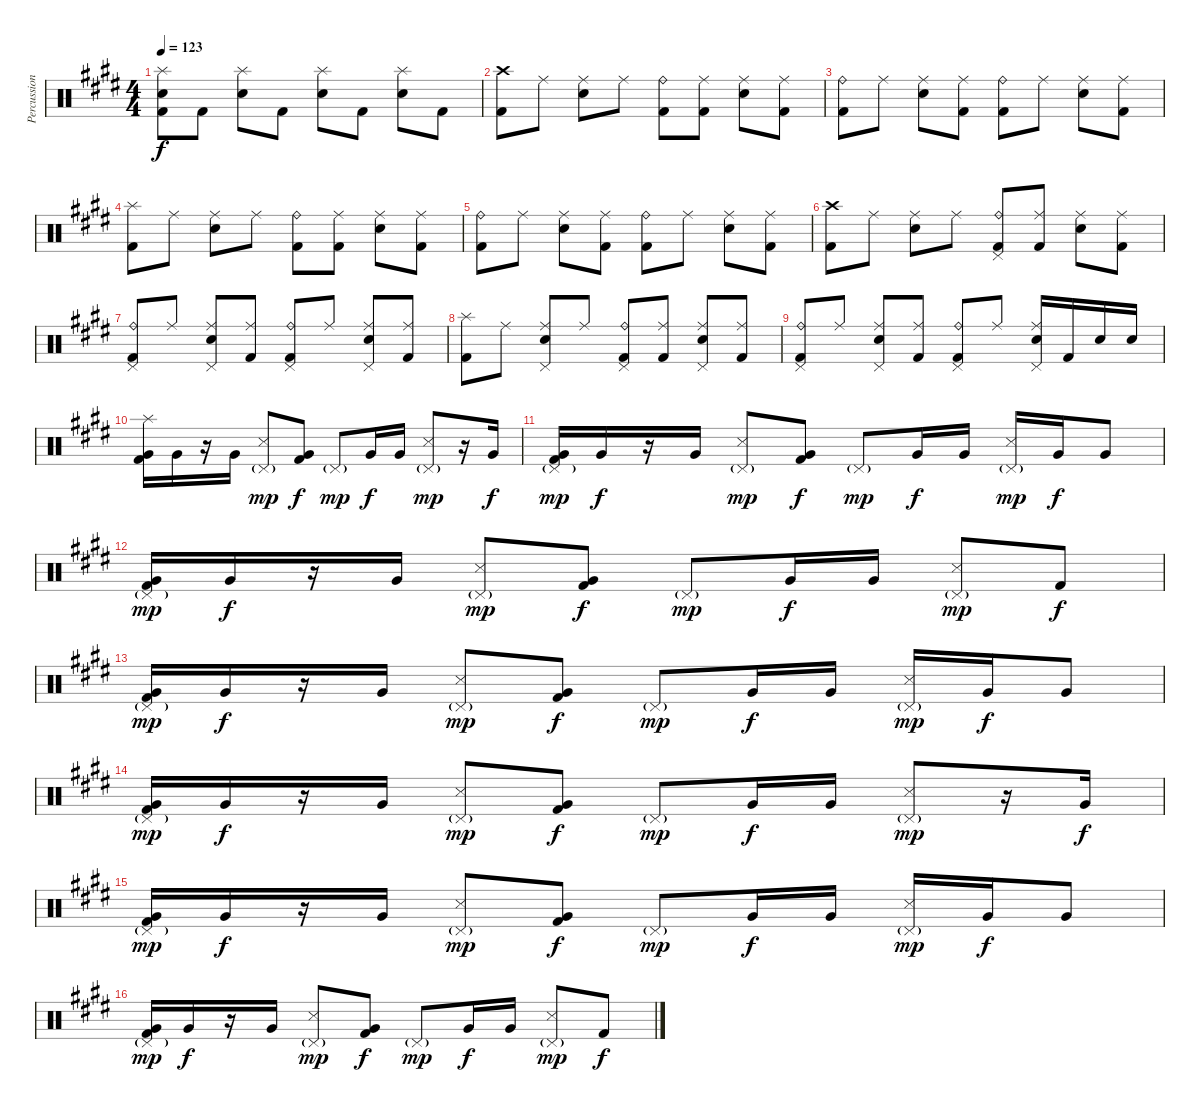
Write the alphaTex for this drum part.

\track ("Percussioni" "Percussion") {instrument percussion}
\staff {score}
\articulation defaults
\ts (4 4)
\tempo 123
\clef neutral
\ks e
("Splash (hit)" "Electric Snare (hit)" "Kick (hit) 2").8{dy f} "Kick (hit) 2".8 ("Splash (hit)" "Electric Snare (hit)").8 "Kick (hit) 2".8 ("Splash (hit)" "Electric Snare (hit)").8 "Kick (hit) 2".8 ("Splash (hit)" "Electric Snare (hit)").8 "Kick (hit) 2".8 |
("Crash high (hit)" "Kick (hit) 2").8 "Ride (middle)".8 ("Ride (middle)" "Electric Snare (hit)").8 "Ride (middle)".8 ("Ride (bell)" "Kick (hit) 2").8 ("Ride (middle)" "Kick (hit) 2").8 ("Ride (middle)" "Electric Snare (hit)").8 ("Ride (middle)" "Kick (hit) 2").8 |
("Ride (bell)" "Kick (hit) 2").8 "Ride (middle)".8 ("Ride (middle)" "Electric Snare (hit)").8 ("Ride (middle)" "Kick (hit) 2").8 ("Ride (bell)" "Kick (hit) 2").8 "Ride (middle)".8 ("Ride (middle)" "Electric Snare (hit)").8 ("Ride (middle)" "Kick (hit) 2").8 |
("Splash (hit)" "Kick (hit) 2").8 "Ride (middle)".8 ("Ride (middle)" "Electric Snare (hit)").8 "Ride (middle)".8 ("Ride (bell)" "Kick (hit) 2").8 ("Ride (middle)" "Kick (hit) 2").8 ("Ride (middle)" "Electric Snare (hit)").8 ("Ride (middle)" "Kick (hit) 2").8 |
("Ride (bell)" "Kick (hit) 2").8 "Ride (middle)".8 ("Ride (middle)" "Electric Snare (hit)").8 ("Ride (middle)" "Kick (hit) 2").8 ("Ride (bell)" "Kick (hit) 2").8 "Ride (middle)".8 ("Ride (middle)" "Electric Snare (hit)").8 ("Ride (middle)" "Kick (hit) 2").8 |
("Crash high (hit)" "Kick (hit) 2").8 "Ride (middle)".8 ("Ride (middle)" "Electric Snare (hit)").8 "Ride (middle)".8 ("Ride (bell)" "Pedal Hi-Hat (hit)" "Kick (hit) 2").8 ("Ride (middle)" "Kick (hit) 2").8 ("Ride (middle)" "Electric Snare (hit)").8 ("Ride (middle)" "Kick (hit) 2").8 |
("Ride (bell)" "Pedal Hi-Hat (hit)" "Kick (hit) 2").8 "Ride (middle)".8 ("Pedal Hi-Hat (hit)" "Ride (middle)" "Electric Snare (hit)").8 ("Ride (middle)" "Kick (hit) 2").8 ("Pedal Hi-Hat (hit)" "Ride (bell)" "Kick (hit) 2").8 "Ride (middle)".8 ("Pedal Hi-Hat (hit)" "Ride (middle)" "Electric Snare (hit)").8 ("Ride (middle)" "Kick (hit) 2").8 |
("Splash (hit)" "Kick (hit) 2").8 "Ride (middle)".8 ("Pedal Hi-Hat (hit)" "Ride (middle)" "Electric Snare (hit)").8 "Ride (middle)".8 ("Pedal Hi-Hat (hit)" "Ride (bell)" "Kick (hit) 2").8 ("Ride (middle)" "Kick (hit) 2").8 ("Pedal Hi-Hat (hit)" "Ride (middle)" "Electric Snare (hit)").8 ("Ride (middle)" "Kick (hit) 2").8 |
("Pedal Hi-Hat (hit)" "Ride (bell)" "Kick (hit) 2").8 "Ride (middle)".8 ("Pedal Hi-Hat (hit)" "Ride (middle)" "Electric Snare (hit)").8 ("Ride (middle)" "Kick (hit) 2").8 ("Pedal Hi-Hat (hit)" "Ride (bell)" "Kick (hit) 2").8 "Ride (middle)".8 ("Pedal Hi-Hat (hit)" "Ride (middle)" "Electric Snare (hit)").16 "Kick (hit) 2".16 "Electric Snare (hit)".16 "Electric Snare (hit)".16 |
("Splash (hit)" "Very Low Tom (hit)" "Kick (hit) 2").16 "Very Low Tom (hit)".16 r.16 "Very Low Tom (hit)".16 ("Pedal Hi-Hat (hit)"{g} "Metronome (hit)").8{dy mp} ("Very Low Tom (hit)" "Kick (hit) 2").8{dy f} "Pedal Hi-Hat (hit)"{g}.8{dy mp} "Very Low Tom (hit)".16{dy f} "Very Low Tom (hit)".16 ("Pedal Hi-Hat (hit)"{g} "Metronome (hit)").8{dy mp} r.16 "Very Low Tom (hit)".16{dy f} |
("Pedal Hi-Hat (hit)"{g} "Very Low Tom (hit)" "Kick (hit) 2").16{dy mp} "Very Low Tom (hit)".16{dy f} r.16 "Very Low Tom (hit)".16 ("Pedal Hi-Hat (hit)"{g} "Metronome (hit)").8{dy mp} ("Very Low Tom (hit)" "Kick (hit) 2").8{dy f} "Pedal Hi-Hat (hit)"{g}.8{dy mp} "Very Low Tom (hit)".16{dy f} "Very Low Tom (hit)".16 ("Pedal Hi-Hat (hit)"{g} "Metronome (hit)").16{dy mp} "Very Low Tom (hit)".16{dy f} "Very Low Tom (hit)".8 |
("Pedal Hi-Hat (hit)"{g} "Very Low Tom (hit)" "Kick (hit) 2").16{dy mp} "Very Low Tom (hit)".16{dy f} r.16 "Very Low Tom (hit)".16 ("Pedal Hi-Hat (hit)"{g} "Metronome (hit)").8{dy mp} ("Very Low Tom (hit)" "Kick (hit) 2").8{dy f} "Pedal Hi-Hat (hit)"{g}.8{dy mp} "Very Low Tom (hit)".16{dy f} "Very Low Tom (hit)".16 ("Pedal Hi-Hat (hit)"{g} "Metronome (hit)").8{dy mp} "Kick (hit) 2".8{dy f} |
("Pedal Hi-Hat (hit)"{g} "Very Low Tom (hit)" "Kick (hit) 2").16{dy mp} "Very Low Tom (hit)".16{dy f} r.16 "Very Low Tom (hit)".16 ("Pedal Hi-Hat (hit)"{g} "Metronome (hit)").8{dy mp} ("Very Low Tom (hit)" "Kick (hit) 2").8{dy f} "Pedal Hi-Hat (hit)"{g}.8{dy mp} "Very Low Tom (hit)".16{dy f} "Very Low Tom (hit)".16 ("Pedal Hi-Hat (hit)"{g} "Metronome (hit)").16{dy mp} "Very Low Tom (hit)".16{dy f} "Very Low Tom (hit)".8 |
("Pedal Hi-Hat (hit)"{g} "Very Low Tom (hit)" "Kick (hit) 2").16{dy mp} "Very Low Tom (hit)".16{dy f} r.16 "Very Low Tom (hit)".16 ("Pedal Hi-Hat (hit)"{g} "Metronome (hit)").8{dy mp} ("Very Low Tom (hit)" "Kick (hit) 2").8{dy f} "Pedal Hi-Hat (hit)"{g}.8{dy mp} "Very Low Tom (hit)".16{dy f} "Very Low Tom (hit)".16 ("Pedal Hi-Hat (hit)"{g} "Metronome (hit)").8{dy mp} r.16 "Very Low Tom (hit)".16{dy f} |
("Pedal Hi-Hat (hit)"{g} "Very Low Tom (hit)" "Kick (hit) 2").16{dy mp} "Very Low Tom (hit)".16{dy f} r.16 "Very Low Tom (hit)".16 ("Pedal Hi-Hat (hit)"{g} "Metronome (hit)").8{dy mp} ("Very Low Tom (hit)" "Kick (hit) 2").8{dy f} "Pedal Hi-Hat (hit)"{g}.8{dy mp} "Very Low Tom (hit)".16{dy f} "Very Low Tom (hit)".16 ("Pedal Hi-Hat (hit)"{g} "Metronome (hit)").16{dy mp} "Very Low Tom (hit)".16{dy f} "Very Low Tom (hit)".8 |
("Pedal Hi-Hat (hit)"{g} "Very Low Tom (hit)" "Kick (hit) 2").16{dy mp} "Very Low Tom (hit)".16{dy f} r.16 "Very Low Tom (hit)".16 ("Pedal Hi-Hat (hit)"{g} "Metronome (hit)").8{dy mp} ("Very Low Tom (hit)" "Kick (hit) 2").8{dy f} "Pedal Hi-Hat (hit)"{g}.8{dy mp} "Very Low Tom (hit)".16{dy f} "Very Low Tom (hit)".16 ("Pedal Hi-Hat (hit)"{g} "Metronome (hit)").8{dy mp} "Kick (hit) 2".8{dy f}
